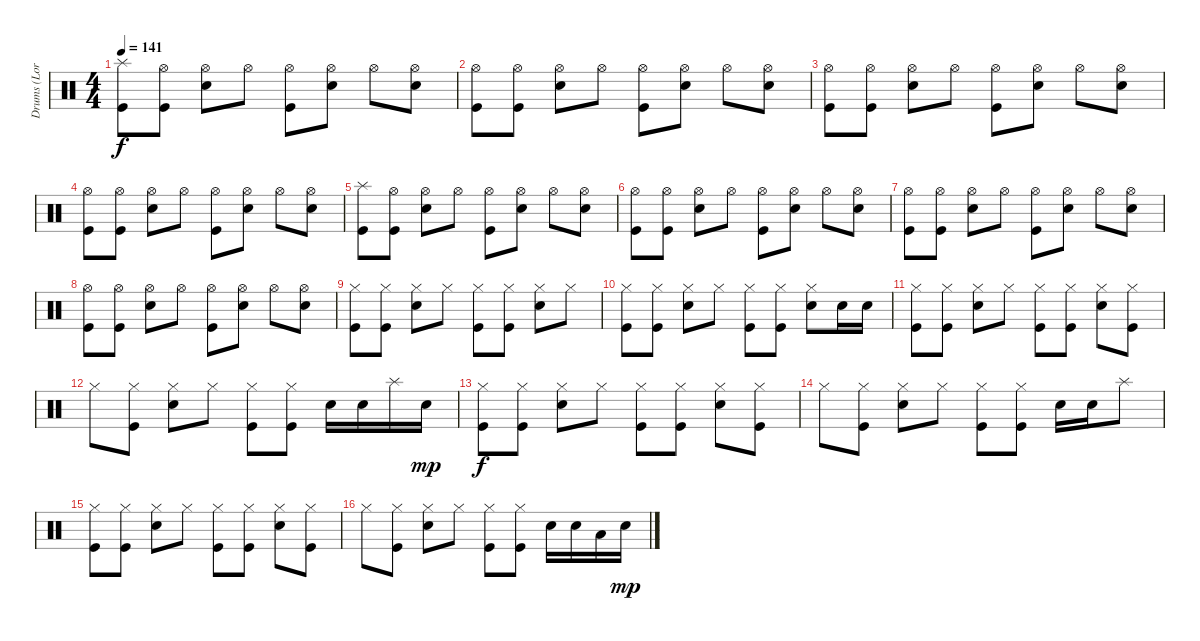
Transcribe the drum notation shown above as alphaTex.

\track ("Drums (Lora)" "Drums (Lor") {instrument percussion}
\staff {score}
\articulation defaults
\ts (4 4)
\tempo 141
\clef neutral
\ks c
("Splash (hit)" "Kick (hit)").8{dy f} ("Hi-Hat (open)" "Kick (hit)").8 ("Hi-Hat (open)" "Snare (hit) 2").8 "Hi-Hat (open)".8 ("Hi-Hat (open)" "Kick (hit)").8 ("Hi-Hat (open)" "Snare (hit) 2").8 "Hi-Hat (open)".8 ("Hi-Hat (open)" "Snare (hit) 2").8 |
("Hi-Hat (open)" "Kick (hit)").8 ("Hi-Hat (open)" "Kick (hit)").8 ("Hi-Hat (open)" "Snare (hit) 2").8 "Hi-Hat (open)".8 ("Hi-Hat (open)" "Kick (hit)").8 ("Hi-Hat (open)" "Snare (hit) 2").8 "Hi-Hat (open)".8 ("Hi-Hat (open)" "Snare (hit) 2").8 |
("Hi-Hat (open)" "Kick (hit)").8 ("Hi-Hat (open)" "Kick (hit)").8 ("Hi-Hat (open)" "Snare (hit) 2").8 "Hi-Hat (open)".8 ("Hi-Hat (open)" "Kick (hit)").8 ("Hi-Hat (open)" "Snare (hit) 2").8 "Hi-Hat (open)".8 ("Hi-Hat (open)" "Snare (hit) 2").8 |
("Hi-Hat (open)" "Kick (hit)").8 ("Hi-Hat (open)" "Kick (hit)").8 ("Hi-Hat (open)" "Snare (hit) 2").8 "Hi-Hat (open)".8 ("Hi-Hat (open)" "Kick (hit)").8 ("Hi-Hat (open)" "Snare (hit) 2").8 "Hi-Hat (open)".8 ("Hi-Hat (open)" "Snare (hit) 2").8 |
("Splash (hit)" "Kick (hit)").8 ("Hi-Hat (open)" "Kick (hit)").8 ("Hi-Hat (open)" "Snare (hit) 2").8 "Hi-Hat (open)".8 ("Hi-Hat (open)" "Kick (hit)").8 ("Hi-Hat (open)" "Snare (hit) 2").8 "Hi-Hat (open)".8 ("Hi-Hat (open)" "Snare (hit) 2").8 |
("Hi-Hat (open)" "Kick (hit)").8 ("Hi-Hat (open)" "Kick (hit)").8 ("Hi-Hat (open)" "Snare (hit) 2").8 "Hi-Hat (open)".8 ("Hi-Hat (open)" "Kick (hit)").8 ("Hi-Hat (open)" "Snare (hit) 2").8 "Hi-Hat (open)".8 ("Hi-Hat (open)" "Snare (hit) 2").8 |
("Hi-Hat (open)" "Kick (hit)").8 ("Hi-Hat (open)" "Kick (hit)").8 ("Hi-Hat (open)" "Snare (hit) 2").8 "Hi-Hat (open)".8 ("Hi-Hat (open)" "Kick (hit)").8 ("Hi-Hat (open)" "Snare (hit) 2").8 "Hi-Hat (open)".8 ("Hi-Hat (open)" "Snare (hit) 2").8 |
("Hi-Hat (open)" "Kick (hit)").8 ("Hi-Hat (open)" "Kick (hit)").8 ("Hi-Hat (open)" "Snare (hit) 2").8 "Hi-Hat (open)".8 ("Hi-Hat (open)" "Kick (hit)").8 ("Hi-Hat (open)" "Snare (hit) 2").8 "Hi-Hat (open)".8 ("Hi-Hat (open)" "Snare (hit) 2").8 |
("Hi-Hat (closed)" "Kick (hit)").8 ("Hi-Hat (closed)" "Kick (hit)").8 ("Hi-Hat (closed)" "Snare (hit) 2").8 "Hi-Hat (closed)".8 ("Hi-Hat (closed)" "Kick (hit)").8 ("Hi-Hat (closed)" "Kick (hit)").8 ("Hi-Hat (closed)" "Snare (hit) 2").8 "Hi-Hat (closed)".8 |
("Hi-Hat (closed)" "Kick (hit)").8 ("Hi-Hat (closed)" "Kick (hit)").8 ("Hi-Hat (closed)" "Snare (hit) 2").8 "Hi-Hat (closed)".8 ("Hi-Hat (closed)" "Kick (hit)").8 ("Hi-Hat (closed)" "Kick (hit)").8 ("Hi-Hat (closed)" "Snare (hit) 2").8 "Snare (hit) 2".16 "Snare (hit) 2".16 |
("Hi-Hat (closed)" "Kick (hit)").8 ("Hi-Hat (closed)" "Kick (hit)").8 ("Hi-Hat (closed)" "Snare (hit) 2").8 "Hi-Hat (closed)".8 ("Hi-Hat (closed)" "Kick (hit)").8 ("Hi-Hat (closed)" "Kick (hit)").8 ("Hi-Hat (closed)" "Snare (hit) 2").8 ("Hi-Hat (closed)" "Kick (hit)").8 |
"Hi-Hat (closed)".8 ("Hi-Hat (closed)" "Kick (hit)").8 ("Hi-Hat (closed)" "Snare (hit) 2").8 "Hi-Hat (closed)".8 ("Hi-Hat (closed)" "Kick (hit)").8 ("Hi-Hat (closed)" "Kick (hit)").8 "Snare (hit) 2".16 "Snare (hit) 2".16 "Splash (hit)".16 "Snare (hit) 2".16{dy mp} |
("Hi-Hat (closed)" "Kick (hit)").8{dy f} ("Hi-Hat (closed)" "Kick (hit)").8 ("Hi-Hat (closed)" "Snare (hit) 2").8 "Hi-Hat (closed)".8 ("Hi-Hat (closed)" "Kick (hit)").8 ("Hi-Hat (closed)" "Kick (hit)").8 ("Hi-Hat (closed)" "Snare (hit) 2").8 ("Hi-Hat (closed)" "Kick (hit)").8 |
"Hi-Hat (closed)".8 ("Hi-Hat (closed)" "Kick (hit)").8 ("Hi-Hat (closed)" "Snare (hit) 2").8 "Hi-Hat (closed)".8 ("Hi-Hat (closed)" "Kick (hit)").8 ("Hi-Hat (closed)" "Kick (hit)").8 "Snare (hit) 2".16 "Snare (hit) 2".16 "Splash (hit)".8 |
("Hi-Hat (closed)" "Kick (hit)").8 ("Hi-Hat (closed)" "Kick (hit)").8 ("Hi-Hat (closed)" "Snare (hit) 2").8 "Hi-Hat (closed)".8 ("Hi-Hat (closed)" "Kick (hit)").8 ("Hi-Hat (closed)" "Kick (hit)").8 ("Hi-Hat (closed)" "Snare (hit) 2").8 ("Hi-Hat (closed)" "Kick (hit)").8 |
"Hi-Hat (closed)".8 ("Hi-Hat (closed)" "Kick (hit)").8 ("Hi-Hat (closed)" "Snare (hit) 2").8 "Hi-Hat (closed)".8 ("Hi-Hat (closed)" "Kick (hit)").8 ("Hi-Hat (closed)" "Kick (hit)").8 "Snare (hit) 2".16 "Snare (hit) 2".16 "Low Tom (hit)".16 "Snare (hit) 2".16{dy mp}
